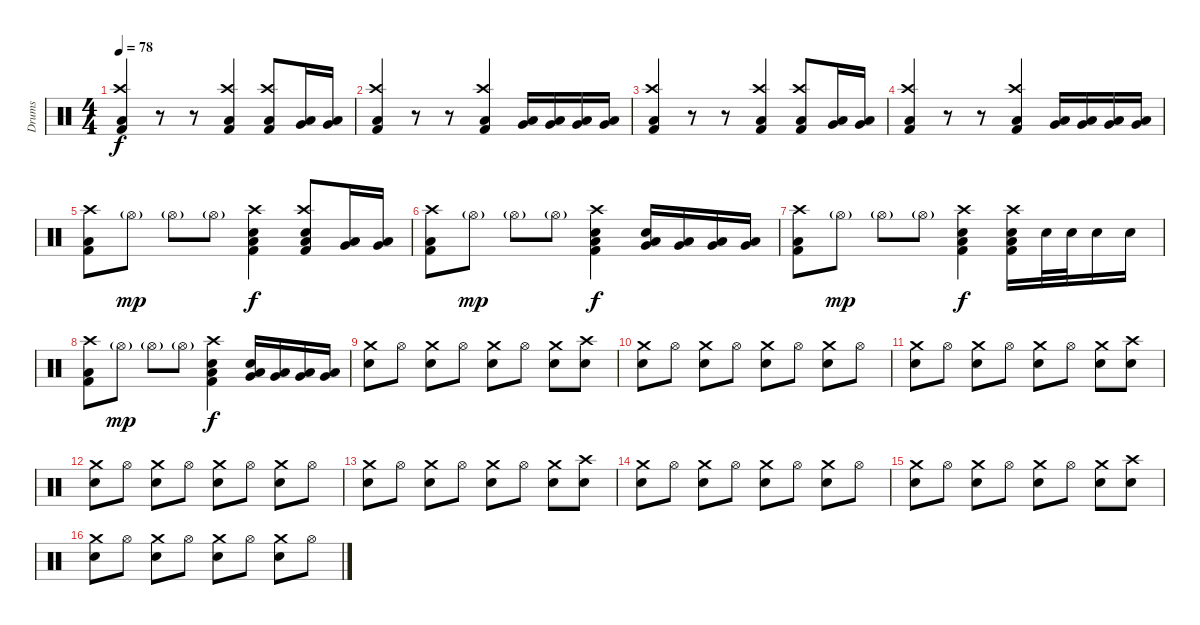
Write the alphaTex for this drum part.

\track ("Drums" "Drums") {instrument percussion}
\staff {score}
\articulation defaults
\ts (4 4)
\tempo 78
\clef neutral
\ks c
("Low Tom (hit)" "Crash high (hit)" "Kick (hit) 2").4{dy f} r.8 r.8 ("Low Tom (hit)" "Crash high (hit)" "Kick (hit) 2").4 ("Low Tom (hit)" "Crash high (hit)" "Kick (hit) 2").8 ("Low Tom (hit)" "Very Low Tom (hit)").16 ("Low Tom (hit)" "Very Low Tom (hit)").16 |
("Low Tom (hit)" "Crash high (hit)" "Kick (hit) 2").4 r.8 r.8 ("Low Tom (hit)" "Crash high (hit)" "Kick (hit) 2").4 ("Low Tom (hit)" "Very Low Tom (hit)").16 ("Low Tom (hit)" "Very Low Tom (hit)").16 ("Low Tom (hit)" "Very Low Tom (hit)").16 ("Low Tom (hit)" "Very Low Tom (hit)").16 |
("Low Tom (hit)" "Crash high (hit)" "Kick (hit) 2").4 r.8 r.8 ("Low Tom (hit)" "Crash high (hit)" "Kick (hit) 2").4 ("Low Tom (hit)" "Crash high (hit)" "Kick (hit) 2").8 ("Low Tom (hit)" "Very Low Tom (hit)").16 ("Low Tom (hit)" "Very Low Tom (hit)").16 |
("Low Tom (hit)" "Crash high (hit)" "Kick (hit) 2").4 r.8 r.8 ("Low Tom (hit)" "Crash high (hit)" "Kick (hit) 2").4 ("Low Tom (hit)" "Very Low Tom (hit)").16 ("Low Tom (hit)" "Very Low Tom (hit)").16 ("Low Tom (hit)" "Very Low Tom (hit)").16 ("Low Tom (hit)" "Very Low Tom (hit)").16 |
("Low Tom (hit)" "Crash high (hit)" "Kick (hit) 2").8 "Hi-Hat (open)"{g}.8{dy mp} "Hi-Hat (open)"{g}.8 "Hi-Hat (open)"{g}.8 ("Low Tom (hit)" "Crash high (hit)" "Kick (hit) 2" "Snare (hit) 2").4{dy f} ("Low Tom (hit)" "Crash high (hit)" "Kick (hit) 2" "Snare (hit) 2").8 ("Low Tom (hit)" "Very Low Tom (hit)").16 ("Low Tom (hit)" "Very Low Tom (hit)").16 |
("Low Tom (hit)" "Crash high (hit)" "Kick (hit) 2").8 "Hi-Hat (open)"{g}.8{dy mp} "Hi-Hat (open)"{g}.8 "Hi-Hat (open)"{g}.8 ("Low Tom (hit)" "Crash high (hit)" "Kick (hit) 2" "Snare (hit) 2").4{dy f} ("Low Tom (hit)" "Very Low Tom (hit)" "Snare (hit) 2").16 ("Low Tom (hit)" "Very Low Tom (hit)").16 ("Low Tom (hit)" "Very Low Tom (hit)").16 ("Low Tom (hit)" "Very Low Tom (hit)").16 |
("Low Tom (hit)" "Crash high (hit)" "Kick (hit) 2").8 "Hi-Hat (open)"{g}.8{dy mp} "Hi-Hat (open)"{g}.8 "Hi-Hat (open)"{g}.8 ("Low Tom (hit)" "Crash high (hit)" "Kick (hit) 2" "Snare (hit) 2").4{dy f} ("Low Tom (hit)" "Crash high (hit)" "Kick (hit) 2" "Snare (hit) 2").16 "Snare (hit) 2".32 "Snare (hit) 2".32 "Snare (hit) 2".16 "Snare (hit) 2".16 |
("Low Tom (hit)" "Crash high (hit)" "Kick (hit) 2").8 "Hi-Hat (open)"{g}.8{dy mp} "Hi-Hat (open)"{g}.8 "Hi-Hat (open)"{g}.8 ("Low Tom (hit)" "Crash high (hit)" "Kick (hit) 2" "Snare (hit) 2").4{dy f} ("Low Tom (hit)" "Very Low Tom (hit)" "Snare (hit) 2").16 ("Low Tom (hit)" "Very Low Tom (hit)").16 ("Low Tom (hit)" "Very Low Tom (hit)").16 ("Low Tom (hit)" "Very Low Tom (hit)").16 |
("Snare (hit) 2" "Crash medium (hit)").8 "Hi-Hat (open)".8 ("Snare (hit) 2" "Crash medium (hit)").8 "Hi-Hat (open)".8 ("Snare (hit) 2" "Crash medium (hit)").8 "Hi-Hat (open)".8 ("Snare (hit) 2" "Crash medium (hit)").8 ("Snare (hit) 2" "Crash high (hit)").8 |
("Snare (hit) 2" "Crash medium (hit)").8 "Hi-Hat (open)".8 ("Snare (hit) 2" "Crash medium (hit)").8 "Hi-Hat (open)".8 ("Snare (hit) 2" "Crash medium (hit)").8 "Hi-Hat (open)".8 ("Snare (hit) 2" "Crash medium (hit)").8 "Hi-Hat (open)".8 |
("Snare (hit) 2" "Crash medium (hit)").8 "Hi-Hat (open)".8 ("Snare (hit) 2" "Crash medium (hit)").8 "Hi-Hat (open)".8 ("Snare (hit) 2" "Crash medium (hit)").8 "Hi-Hat (open)".8 ("Snare (hit) 2" "Crash medium (hit)").8 ("Snare (hit) 2" "Crash high (hit)").8 |
("Snare (hit) 2" "Crash medium (hit)").8 "Hi-Hat (open)".8 ("Snare (hit) 2" "Crash medium (hit)").8 "Hi-Hat (open)".8 ("Snare (hit) 2" "Crash medium (hit)").8 "Hi-Hat (open)".8 ("Snare (hit) 2" "Crash medium (hit)").8 "Hi-Hat (open)".8 |
("Snare (hit) 2" "Crash medium (hit)").8 "Hi-Hat (open)".8 ("Snare (hit) 2" "Crash medium (hit)").8 "Hi-Hat (open)".8 ("Snare (hit) 2" "Crash medium (hit)").8 "Hi-Hat (open)".8 ("Snare (hit) 2" "Crash medium (hit)").8 ("Snare (hit) 2" "Crash high (hit)").8 |
("Snare (hit) 2" "Crash medium (hit)").8 "Hi-Hat (open)".8 ("Snare (hit) 2" "Crash medium (hit)").8 "Hi-Hat (open)".8 ("Snare (hit) 2" "Crash medium (hit)").8 "Hi-Hat (open)".8 ("Snare (hit) 2" "Crash medium (hit)").8 "Hi-Hat (open)".8 |
("Snare (hit) 2" "Crash medium (hit)").8 "Hi-Hat (open)".8 ("Snare (hit) 2" "Crash medium (hit)").8 "Hi-Hat (open)".8 ("Snare (hit) 2" "Crash medium (hit)").8 "Hi-Hat (open)".8 ("Snare (hit) 2" "Crash medium (hit)").8 ("Snare (hit) 2" "Crash high (hit)").8 |
("Snare (hit) 2" "Crash medium (hit)").8 "Hi-Hat (open)".8 ("Snare (hit) 2" "Crash medium (hit)").8 "Hi-Hat (open)".8 ("Snare (hit) 2" "Crash medium (hit)").8 "Hi-Hat (open)".8 ("Snare (hit) 2" "Crash medium (hit)").8 "Hi-Hat (open)".8
